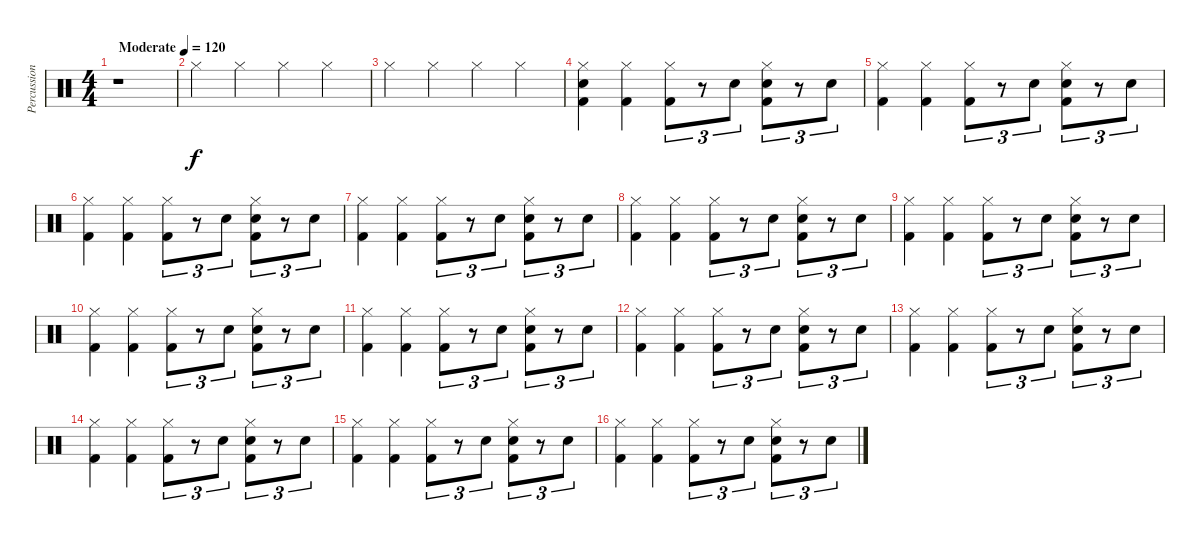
\track ("Percussions" "Percussion") {instrument percussion}
\staff {score}
\articulation defaults
\ts (4 4)
\tempo (120 "Moderate")
\clef neutral
\ks c
r.1{dy f} |
"Hi-Hat (closed)".4 "Hi-Hat (closed)".4 "Hi-Hat (closed)".4 "Hi-Hat (closed)".4 |
"Hi-Hat (closed)".4 "Hi-Hat (closed)".4 "Hi-Hat (closed)".4 "Hi-Hat (closed)".4 |
("Hi-Hat (closed)" "Electric Snare (hit)" "Kick (hit) 2").4 ("Hi-Hat (closed)" "Kick (hit) 2").4 ("Hi-Hat (closed)" "Kick (hit) 2").8{tu (3 2)} r.8{tu (3 2)} "Electric Snare (hit)".8{tu (3 2)} ("Hi-Hat (closed)" "Electric Snare (hit)" "Kick (hit) 2").8{tu (3 2)} r.8{tu (3 2)} "Electric Snare (hit)".8{tu (3 2)} |
("Hi-Hat (closed)" "Kick (hit) 2").4 ("Hi-Hat (closed)" "Kick (hit) 2").4 ("Hi-Hat (closed)" "Kick (hit) 2").8{tu (3 2)} r.8{tu (3 2)} "Electric Snare (hit)".8{tu (3 2)} ("Hi-Hat (closed)" "Electric Snare (hit)" "Kick (hit) 2").8{tu (3 2)} r.8{tu (3 2)} "Electric Snare (hit)".8{tu (3 2)} |
("Hi-Hat (closed)" "Kick (hit) 2").4 ("Hi-Hat (closed)" "Kick (hit) 2").4 ("Hi-Hat (closed)" "Kick (hit) 2").8{tu (3 2)} r.8{tu (3 2)} "Electric Snare (hit)".8{tu (3 2)} ("Hi-Hat (closed)" "Electric Snare (hit)" "Kick (hit) 2").8{tu (3 2)} r.8{tu (3 2)} "Electric Snare (hit)".8{tu (3 2)} |
("Hi-Hat (closed)" "Kick (hit) 2").4 ("Hi-Hat (closed)" "Kick (hit) 2").4 ("Hi-Hat (closed)" "Kick (hit) 2").8{tu (3 2)} r.8{tu (3 2)} "Electric Snare (hit)".8{tu (3 2)} ("Hi-Hat (closed)" "Electric Snare (hit)" "Kick (hit) 2").8{tu (3 2)} r.8{tu (3 2)} "Electric Snare (hit)".8{tu (3 2)} |
("Hi-Hat (closed)" "Kick (hit) 2").4 ("Hi-Hat (closed)" "Kick (hit) 2").4 ("Hi-Hat (closed)" "Kick (hit) 2").8{tu (3 2)} r.8{tu (3 2)} "Electric Snare (hit)".8{tu (3 2)} ("Hi-Hat (closed)" "Electric Snare (hit)" "Kick (hit) 2").8{tu (3 2)} r.8{tu (3 2)} "Electric Snare (hit)".8{tu (3 2)} |
("Hi-Hat (closed)" "Kick (hit) 2").4 ("Hi-Hat (closed)" "Kick (hit) 2").4 ("Hi-Hat (closed)" "Kick (hit) 2").8{tu (3 2)} r.8{tu (3 2)} "Electric Snare (hit)".8{tu (3 2)} ("Hi-Hat (closed)" "Electric Snare (hit)" "Kick (hit) 2").8{tu (3 2)} r.8{tu (3 2)} "Electric Snare (hit)".8{tu (3 2)} |
("Hi-Hat (closed)" "Kick (hit) 2").4 ("Hi-Hat (closed)" "Kick (hit) 2").4 ("Hi-Hat (closed)" "Kick (hit) 2").8{tu (3 2)} r.8{tu (3 2)} "Electric Snare (hit)".8{tu (3 2)} ("Hi-Hat (closed)" "Electric Snare (hit)" "Kick (hit) 2").8{tu (3 2)} r.8{tu (3 2)} "Electric Snare (hit)".8{tu (3 2)} |
("Hi-Hat (closed)" "Kick (hit) 2").4 ("Hi-Hat (closed)" "Kick (hit) 2").4 ("Hi-Hat (closed)" "Kick (hit) 2").8{tu (3 2)} r.8{tu (3 2)} "Electric Snare (hit)".8{tu (3 2)} ("Hi-Hat (closed)" "Electric Snare (hit)" "Kick (hit) 2").8{tu (3 2)} r.8{tu (3 2)} "Electric Snare (hit)".8{tu (3 2)} |
("Hi-Hat (closed)" "Kick (hit) 2").4 ("Hi-Hat (closed)" "Kick (hit) 2").4 ("Hi-Hat (closed)" "Kick (hit) 2").8{tu (3 2)} r.8{tu (3 2)} "Electric Snare (hit)".8{tu (3 2)} ("Hi-Hat (closed)" "Electric Snare (hit)" "Kick (hit) 2").8{tu (3 2)} r.8{tu (3 2)} "Electric Snare (hit)".8{tu (3 2)} |
("Hi-Hat (closed)" "Kick (hit) 2").4 ("Hi-Hat (closed)" "Kick (hit) 2").4 ("Hi-Hat (closed)" "Kick (hit) 2").8{tu (3 2)} r.8{tu (3 2)} "Electric Snare (hit)".8{tu (3 2)} ("Hi-Hat (closed)" "Electric Snare (hit)" "Kick (hit) 2").8{tu (3 2)} r.8{tu (3 2)} "Electric Snare (hit)".8{tu (3 2)} |
("Hi-Hat (closed)" "Kick (hit) 2").4 ("Hi-Hat (closed)" "Kick (hit) 2").4 ("Hi-Hat (closed)" "Kick (hit) 2").8{tu (3 2)} r.8{tu (3 2)} "Electric Snare (hit)".8{tu (3 2)} ("Hi-Hat (closed)" "Electric Snare (hit)" "Kick (hit) 2").8{tu (3 2)} r.8{tu (3 2)} "Electric Snare (hit)".8{tu (3 2)} |
("Hi-Hat (closed)" "Kick (hit) 2").4 ("Hi-Hat (closed)" "Kick (hit) 2").4 ("Hi-Hat (closed)" "Kick (hit) 2").8{tu (3 2)} r.8{tu (3 2)} "Electric Snare (hit)".8{tu (3 2)} ("Hi-Hat (closed)" "Electric Snare (hit)" "Kick (hit) 2").8{tu (3 2)} r.8{tu (3 2)} "Electric Snare (hit)".8{tu (3 2)} |
("Hi-Hat (closed)" "Kick (hit) 2").4 ("Hi-Hat (closed)" "Kick (hit) 2").4 ("Hi-Hat (closed)" "Kick (hit) 2").8{tu (3 2)} r.8{tu (3 2)} "Electric Snare (hit)".8{tu (3 2)} ("Hi-Hat (closed)" "Electric Snare (hit)" "Kick (hit) 2").8{tu (3 2)} r.8{tu (3 2)} "Electric Snare (hit)".8{tu (3 2)}
